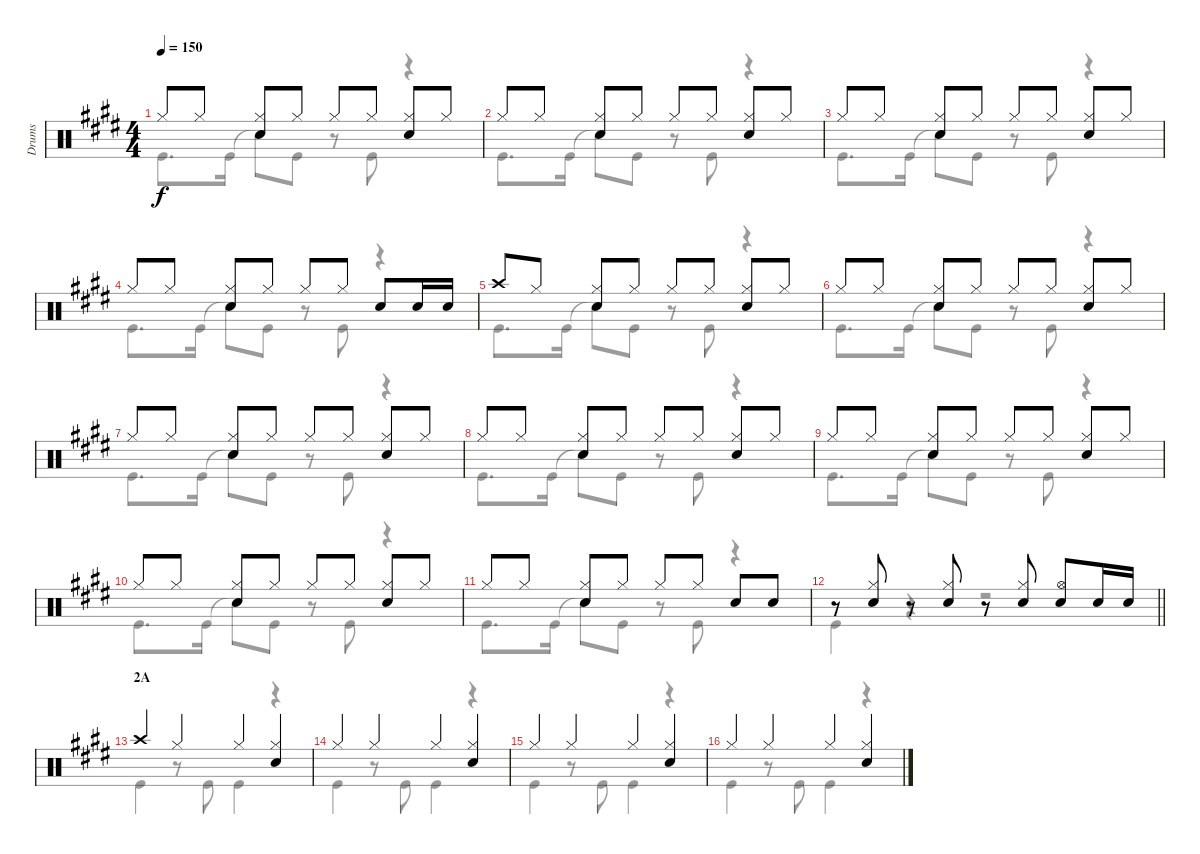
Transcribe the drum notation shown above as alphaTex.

\track ("Drums" "Drums") {instrument percussion}
\staff {score}
\articulation defaults
\voice
\ts (4 4)
\tempo 150
\clef neutral
\ks e "Hi-Hat (closed)".8{dy f} "Hi-Hat (closed)".8
("Hi-Hat (closed)" "Snare (hit) 2").8 "Hi-Hat (closed)".8 "Hi-Hat (closed)".8 "Hi-Hat (closed)".8 ("Hi-Hat (closed)" "Snare (hit) 2").8 "Hi-Hat (closed)".8 |
"Hi-Hat (closed)".8 "Hi-Hat (closed)".8 ("Hi-Hat (closed)" "Snare (hit) 2").8 "Hi-Hat (closed)".8 "Hi-Hat (closed)".8 "Hi-Hat (closed)".8 ("Hi-Hat (closed)" "Snare (hit) 2").8 "Hi-Hat (closed)".8 |
"Hi-Hat (closed)".8 "Hi-Hat (closed)".8 ("Hi-Hat (closed)" "Snare (hit) 2").8 "Hi-Hat (closed)".8 "Hi-Hat (closed)".8 "Hi-Hat (closed)".8 ("Hi-Hat (closed)" "Snare (hit) 2").8 "Hi-Hat (closed)".8 |
"Hi-Hat (closed)".8 "Hi-Hat (closed)".8 ("Hi-Hat (closed)" "Snare (hit) 2").8 "Hi-Hat (closed)".8 "Hi-Hat (closed)".8 "Hi-Hat (closed)".8 "Snare (hit) 2".8 "Snare (hit) 2".16 "Snare (hit) 2".16 |
"Crash high (hit)".8 "Hi-Hat (closed)".8 ("Hi-Hat (closed)" "Snare (hit) 2").8 "Hi-Hat (closed)".8 "Hi-Hat (closed)".8 "Hi-Hat (closed)".8 ("Hi-Hat (closed)" "Snare (hit) 2").8 "Hi-Hat (closed)".8 |
"Hi-Hat (closed)".8 "Hi-Hat (closed)".8 ("Hi-Hat (closed)" "Snare (hit) 2").8 "Hi-Hat (closed)".8 "Hi-Hat (closed)".8 "Hi-Hat (closed)".8 ("Hi-Hat (closed)" "Snare (hit) 2").8 "Hi-Hat (closed)".8 |
"Hi-Hat (closed)".8 "Hi-Hat (closed)".8 ("Hi-Hat (closed)" "Snare (hit) 2").8 "Hi-Hat (closed)".8 "Hi-Hat (closed)".8 "Hi-Hat (closed)".8 ("Hi-Hat (closed)" "Snare (hit) 2").8 "Hi-Hat (closed)".8 |
"Hi-Hat (closed)".8 "Hi-Hat (closed)".8 ("Hi-Hat (closed)" "Snare (hit) 2").8 "Hi-Hat (closed)".8 "Hi-Hat (closed)".8 "Hi-Hat (closed)".8 ("Hi-Hat (closed)" "Snare (hit) 2").8 "Hi-Hat (closed)".8 |
"Hi-Hat (closed)".8 "Hi-Hat (closed)".8 ("Hi-Hat (closed)" "Snare (hit) 2").8 "Hi-Hat (closed)".8 "Hi-Hat (closed)".8 "Hi-Hat (closed)".8 ("Hi-Hat (closed)" "Snare (hit) 2").8 "Hi-Hat (closed)".8 |
"Hi-Hat (closed)".8 "Hi-Hat (closed)".8 ("Hi-Hat (closed)" "Snare (hit) 2").8 "Hi-Hat (closed)".8 "Hi-Hat (closed)".8 "Hi-Hat (closed)".8 ("Hi-Hat (closed)" "Snare (hit) 2").8 "Hi-Hat (closed)".8 |
"Hi-Hat (closed)".8 "Hi-Hat (closed)".8 ("Hi-Hat (closed)" "Snare (hit) 2").8 "Hi-Hat (closed)".8 "Hi-Hat (closed)".8 "Hi-Hat (closed)".8 "Snare (hit) 2".8 "Snare (hit) 2".8 |
\barLineRight lightlight
r.8 ("Hi-Hat (closed)" "Snare (hit) 2").8 r.8 ("Hi-Hat (closed)" "Snare (hit) 2").8 r.8 ("Hi-Hat (closed)" "Snare (hit) 2").8 ("Hi-Hat (open)" "Snare (hit) 2").8 "Snare (hit) 2".16 "Snare (hit) 2".16 |
\section ("" "2A")
"Crash high (hit)".4 "Hi-Hat (closed)".4 "Hi-Hat (closed)".4 ("Hi-Hat (closed)" "Snare (hit) 2").4 |
"Hi-Hat (closed)".4 "Hi-Hat (closed)".4 "Hi-Hat (closed)".4 ("Hi-Hat (closed)" "Snare (hit) 2").4 |
"Hi-Hat (closed)".4 "Hi-Hat (closed)".4 "Hi-Hat (closed)".4 ("Hi-Hat (closed)" "Snare (hit) 2").4 |
"Hi-Hat (closed)".4 "Hi-Hat (closed)".4 "Hi-Hat (closed)".4 ("Hi-Hat (closed)" "Snare (hit) 2").4
\voice
\clef neutral
\ottava regular
\simile none
\ks e "Kick (hit)".8{d dy f} "Kick (hit)".16 "Snare (hit)"{t}.8 "Kick (hit)".8
r.8 "Kick (hit)".8 r.4 |
"Kick (hit)".8{d} "Kick (hit)".16 "Snare (hit)"{t}.8 "Kick (hit)".8 r.8 "Kick (hit)".8 r.4 |
"Kick (hit)".8{d} "Kick (hit)".16 "Snare (hit)"{t}.8 "Kick (hit)".8 r.8 "Kick (hit)".8 r.4 |
"Kick (hit)".8{d} "Kick (hit)".16 "Snare (hit)"{t}.8 "Kick (hit)".8 r.8 "Kick (hit)".8 r.4 |
"Kick (hit)".8{d} "Kick (hit)".16 "Snare (hit)"{t}.8 "Kick (hit)".8 r.8 "Kick (hit)".8 r.4 |
"Kick (hit)".8{d} "Kick (hit)".16 "Snare (hit)"{t}.8 "Kick (hit)".8 r.8 "Kick (hit)".8 r.4 |
"Kick (hit)".8{d} "Kick (hit)".16 "Snare (hit)"{t}.8 "Kick (hit)".8 r.8 "Kick (hit)".8 r.4 |
"Kick (hit)".8{d} "Kick (hit)".16 "Snare (hit)"{t}.8 "Kick (hit)".8 r.8 "Kick (hit)".8 r.4 |
"Kick (hit)".8{d} "Kick (hit)".16 "Snare (hit)"{t}.8 "Kick (hit)".8 r.8 "Kick (hit)".8 r.4 |
"Kick (hit)".8{d} "Kick (hit)".16 "Snare (hit)"{t}.8 "Kick (hit)".8 r.8 "Kick (hit)".8 r.4 |
"Kick (hit)".8{d} "Kick (hit)".16 "Snare (hit)"{t}.8 "Kick (hit)".8 r.8 "Kick (hit)".8 r.4 |
\barLineRight lightlight "Kick (hit)".4
r.4 r.2 |
"Kick (hit)".4 r.8 "Kick (hit)".8 "Kick (hit)".4 r.4 |
"Kick (hit)".4 r.8 "Kick (hit)".8 "Kick (hit)".4 r.4 |
"Kick (hit)".4 r.8 "Kick (hit)".8 "Kick (hit)".4 r.4 |
"Kick (hit)".4 r.8 "Kick (hit)".8 "Kick (hit)".4 r.4
